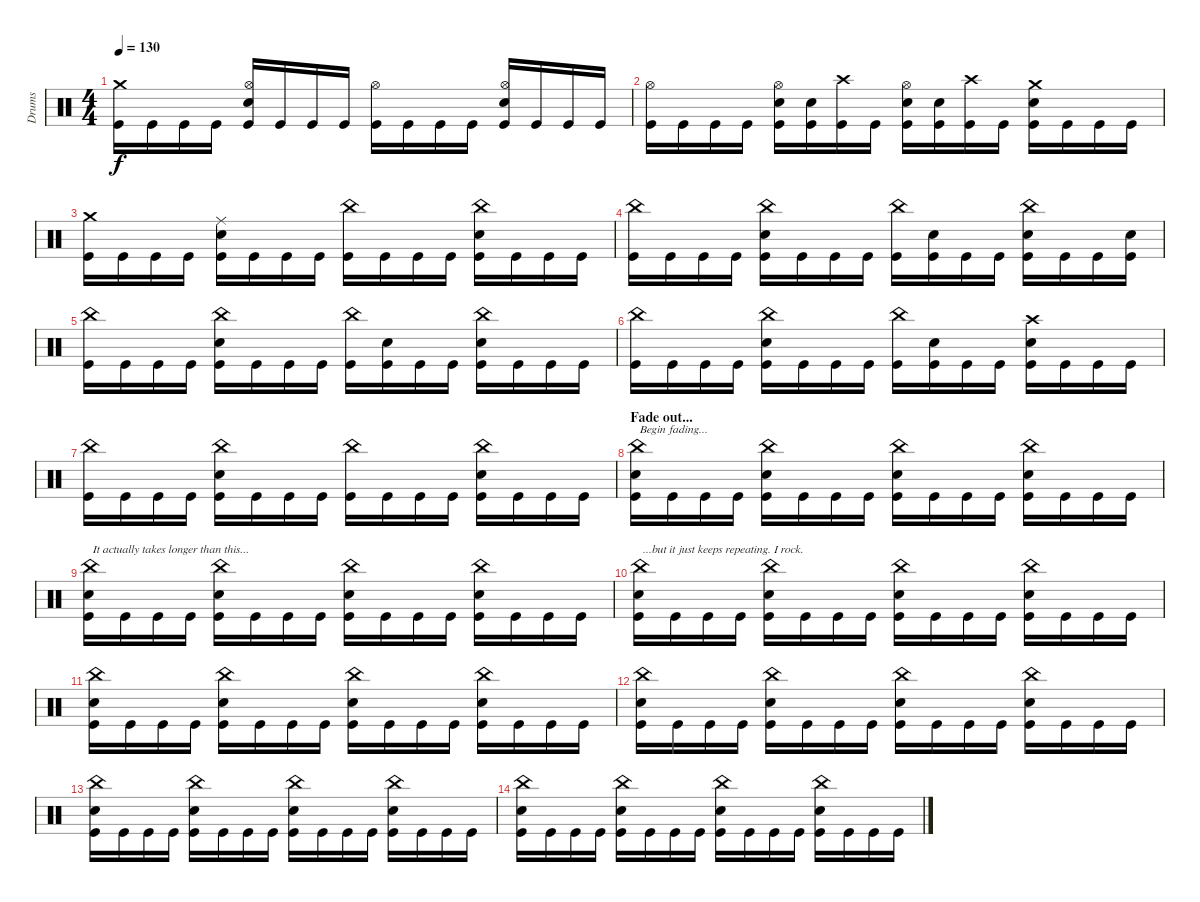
\track ("Drums" "Drums") {instrument percussion}
\staff {score}
\articulation defaults
\ts (4 4)
\tempo 130
\clef neutral
\ks c
("Crash medium (hit)" "Kick (hit)").16{dy f} "Kick (hit)".16 "Kick (hit)".16 "Kick (hit)".16 ("Hi-Hat (open)" "Snare (hit) 2" "Kick (hit)").16 "Kick (hit)".16 "Kick (hit)".16 "Kick (hit)".16 ("Hi-Hat (open)" "Kick (hit)").16 "Kick (hit)".16 "Kick (hit)".16 "Kick (hit)".16 ("Hi-Hat (open)" "Snare (hit) 2" "Kick (hit)").16 "Kick (hit)".16 "Kick (hit)".16 "Kick (hit)".16 |
("Hi-Hat (open)" "Kick (hit)").16 "Kick (hit)".16 "Kick (hit)".16 "Kick (hit)".16 ("Hi-Hat (open)" "Snare (hit) 2" "Kick (hit)").16 ("Snare (hit) 2" "Kick (hit)").16 ("Crash high (hit)" "Kick (hit)").16 "Kick (hit)".16 ("Hi-Hat (open)" "Snare (hit) 2" "Kick (hit)").16 ("Snare (hit) 2" "Kick (hit)").16 ("Crash high (hit)" "Kick (hit)").16 "Kick (hit)".16 ("Crash medium (hit)" "Snare (hit) 2" "Kick (hit)").16 "Kick (hit)".16 "Kick (hit)".16 "Kick (hit)".16 |
("Crash medium (hit)" "Kick (hit)").16 "Kick (hit)".16 "Kick (hit)".16 "Kick (hit)".16 ("Ride (middle)" "Snare (hit) 2" "Kick (hit)").16 "Kick (hit)".16 "Kick (hit)".16 "Kick (hit)".16 ("China (hit)" "Kick (hit)").16 "Kick (hit)".16 "Kick (hit)".16 "Kick (hit)".16 ("China (hit)" "Snare (hit) 2" "Kick (hit)").16 "Kick (hit)".16 "Kick (hit)".16 "Kick (hit)".16 |
("China (hit)" "Kick (hit)").16 "Kick (hit)".16 "Kick (hit)".16 "Kick (hit)".16 ("China (hit)" "Snare (hit) 2" "Kick (hit)").16 "Kick (hit)".16 "Kick (hit)".16 "Kick (hit)".16 ("China (hit)" "Kick (hit)").16 ("Snare (hit) 2" "Kick (hit)").16 "Kick (hit)".16 "Kick (hit)".16 ("China (hit)" "Snare (hit) 2" "Kick (hit)").16 "Kick (hit)".16 "Kick (hit)".16 ("Snare (hit) 2" "Kick (hit)").16 |
("China (hit)" "Kick (hit)").16 "Kick (hit)".16 "Kick (hit)".16 "Kick (hit)".16 ("China (hit)" "Snare (hit) 2" "Kick (hit)").16 "Kick (hit)".16 "Kick (hit)".16 "Kick (hit)".16 ("China (hit)" "Kick (hit)").16 ("Snare (hit) 2" "Kick (hit)").16 "Kick (hit)".16 "Kick (hit)".16 ("China (hit)" "Snare (hit) 2" "Kick (hit)").16 "Kick (hit)".16 "Kick (hit)".16 "Kick (hit)".16 |
("China (hit)" "Kick (hit)").16 "Kick (hit)".16 "Kick (hit)".16 "Kick (hit)".16 ("China (hit)" "Snare (hit) 2" "Kick (hit)").16 "Kick (hit)".16 "Kick (hit)".16 "Kick (hit)".16 ("China (hit)" "Kick (hit)").16 ("Snare (hit) 2" "Kick (hit)").16 "Kick (hit)".16 "Kick (hit)".16 ("Crash high (hit)" "Snare (hit) 2" "Kick (hit)").16 "Kick (hit)".16 "Kick (hit)".16 "Kick (hit)".16 |
("China (hit)" "Kick (hit)").16 "Kick (hit)".16 "Kick (hit)".16 "Kick (hit)".16 ("China (hit)" "Snare (hit) 2" "Kick (hit)").16 "Kick (hit)".16 "Kick (hit)".16 "Kick (hit)".16 ("China (hit)" "Kick (hit)").16 "Kick (hit)".16 "Kick (hit)".16 "Kick (hit)".16 ("China (hit)" "Snare (hit) 2" "Kick (hit)").16 "Kick (hit)".16 "Kick (hit)".16 "Kick (hit)".16 |
\section ("" "Fade out...")
("China (hit)" "Snare (hit) 2" "Kick (hit)").16{txt "Begin fading..." volume 0} "Kick (hit)".16 "Kick (hit)".16 "Kick (hit)".16 ("China (hit)" "Snare (hit) 2" "Kick (hit)").16 "Kick (hit)".16 "Kick (hit)".16 "Kick (hit)".16 ("China (hit)" "Snare (hit) 2" "Kick (hit)").16 "Kick (hit)".16 "Kick (hit)".16 "Kick (hit)".16 ("China (hit)" "Snare (hit) 2" "Kick (hit)").16 "Kick (hit)".16 "Kick (hit)".16 "Kick (hit)".16 |
("China (hit)" "Snare (hit) 2" "Kick (hit)").16{txt "It actually takes longer than this..."} "Kick (hit)".16 "Kick (hit)".16 "Kick (hit)".16 ("China (hit)" "Snare (hit) 2" "Kick (hit)").16 "Kick (hit)".16 "Kick (hit)".16 "Kick (hit)".16 ("China (hit)" "Snare (hit) 2" "Kick (hit)").16 "Kick (hit)".16 "Kick (hit)".16 "Kick (hit)".16 ("China (hit)" "Snare (hit) 2" "Kick (hit)").16 "Kick (hit)".16 "Kick (hit)".16 "Kick (hit)".16 |
("China (hit)" "Snare (hit) 2" "Kick (hit)").16{txt "...but it just keeps repeating. I rock."} "Kick (hit)".16 "Kick (hit)".16 "Kick (hit)".16 ("China (hit)" "Snare (hit) 2" "Kick (hit)").16 "Kick (hit)".16 "Kick (hit)".16 "Kick (hit)".16 ("China (hit)" "Snare (hit) 2" "Kick (hit)").16 "Kick (hit)".16 "Kick (hit)".16 "Kick (hit)".16 ("China (hit)" "Snare (hit) 2" "Kick (hit)").16 "Kick (hit)".16 "Kick (hit)".16 "Kick (hit)".16 |
("China (hit)" "Snare (hit) 2" "Kick (hit)").16 "Kick (hit)".16 "Kick (hit)".16 "Kick (hit)".16 ("China (hit)" "Snare (hit) 2" "Kick (hit)").16 "Kick (hit)".16 "Kick (hit)".16 "Kick (hit)".16 ("China (hit)" "Snare (hit) 2" "Kick (hit)").16 "Kick (hit)".16 "Kick (hit)".16 "Kick (hit)".16 ("China (hit)" "Snare (hit) 2" "Kick (hit)").16 "Kick (hit)".16 "Kick (hit)".16 "Kick (hit)".16 |
("China (hit)" "Snare (hit) 2" "Kick (hit)").16 "Kick (hit)".16 "Kick (hit)".16 "Kick (hit)".16 ("China (hit)" "Snare (hit) 2" "Kick (hit)").16 "Kick (hit)".16 "Kick (hit)".16 "Kick (hit)".16 ("China (hit)" "Snare (hit) 2" "Kick (hit)").16 "Kick (hit)".16 "Kick (hit)".16 "Kick (hit)".16 ("China (hit)" "Snare (hit) 2" "Kick (hit)").16 "Kick (hit)".16 "Kick (hit)".16 "Kick (hit)".16 |
("China (hit)" "Snare (hit) 2" "Kick (hit)").16 "Kick (hit)".16 "Kick (hit)".16 "Kick (hit)".16 ("China (hit)" "Snare (hit) 2" "Kick (hit)").16 "Kick (hit)".16 "Kick (hit)".16 "Kick (hit)".16 ("China (hit)" "Snare (hit) 2" "Kick (hit)").16 "Kick (hit)".16 "Kick (hit)".16 "Kick (hit)".16 ("China (hit)" "Snare (hit) 2" "Kick (hit)").16 "Kick (hit)".16 "Kick (hit)".16 "Kick (hit)".16 |
("China (hit)" "Snare (hit) 2" "Kick (hit)").16 "Kick (hit)".16 "Kick (hit)".16 "Kick (hit)".16 ("China (hit)" "Snare (hit) 2" "Kick (hit)").16 "Kick (hit)".16 "Kick (hit)".16 "Kick (hit)".16 ("China (hit)" "Snare (hit) 2" "Kick (hit)").16 "Kick (hit)".16 "Kick (hit)".16 "Kick (hit)".16 ("China (hit)" "Snare (hit) 2" "Kick (hit)").16 "Kick (hit)".16 "Kick (hit)".16 "Kick (hit)".16
